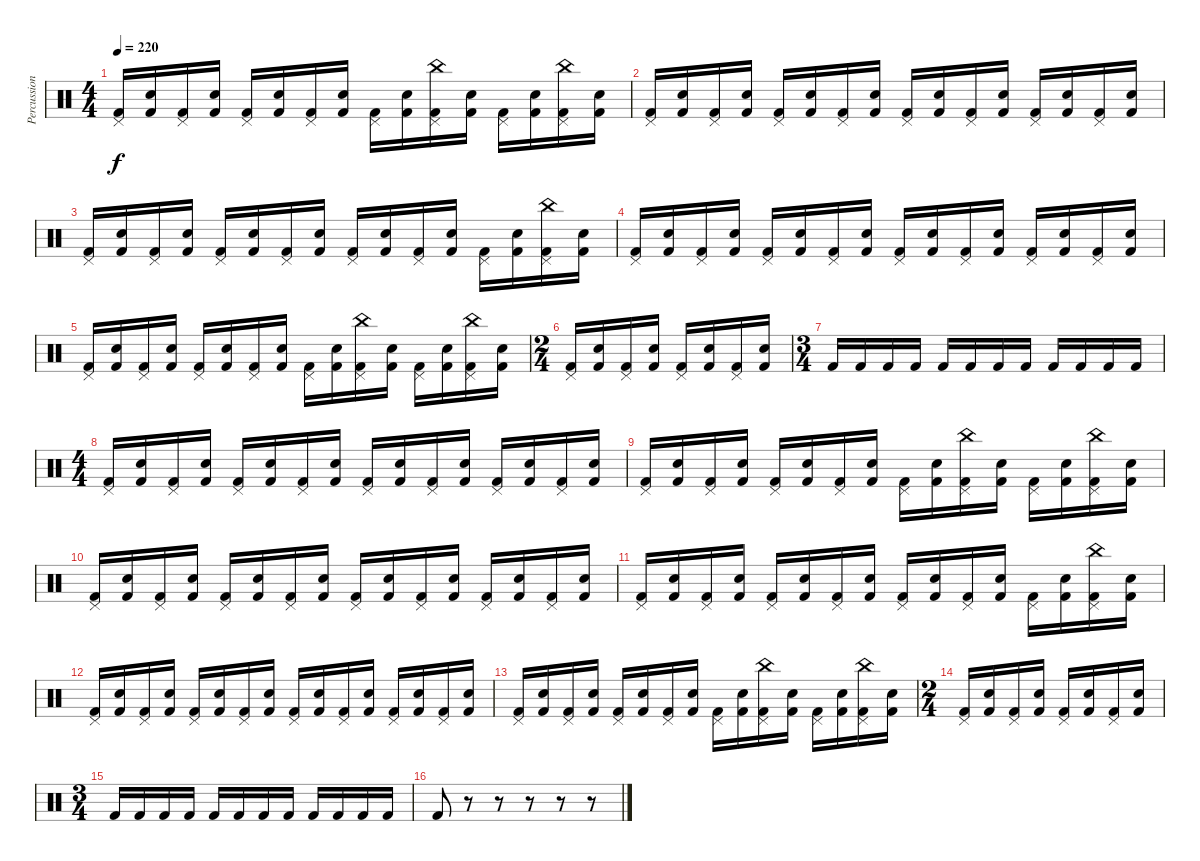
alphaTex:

\track ("Percussions" "Percussion") {instrument percussion}
\staff {score}
\articulation defaults
\ts (4 4)
\tempo 220
\clef neutral
\ks c
("Pedal Hi-Hat (hit)" "Kick (hit) 2").16{dy f} ("Snare (hit) 2" "Kick (hit) 2").16 ("Pedal Hi-Hat (hit)" "Kick (hit) 2").16 ("Snare (hit) 2" "Kick (hit) 2").16 ("Pedal Hi-Hat (hit)" "Kick (hit) 2").16 ("Snare (hit) 2" "Kick (hit) 2").16 ("Pedal Hi-Hat (hit)" "Kick (hit) 2").16 ("Snare (hit) 2" "Kick (hit) 2").16 ("Pedal Hi-Hat (hit)" "Kick (hit) 2").16 ("Snare (hit) 2" "Kick (hit) 2").16 ("China (hit)" "Pedal Hi-Hat (hit)" "Kick (hit) 2").16 ("Snare (hit) 2" "Kick (hit) 2").16 ("Pedal Hi-Hat (hit)" "Kick (hit) 2").16 ("Snare (hit) 2" "Kick (hit) 2").16 ("China (hit)" "Pedal Hi-Hat (hit)" "Kick (hit) 2").16 ("Snare (hit) 2" "Kick (hit) 2").16 |
("Pedal Hi-Hat (hit)" "Kick (hit) 2").16 ("Snare (hit) 2" "Kick (hit) 2").16 ("Pedal Hi-Hat (hit)" "Kick (hit) 2").16 ("Snare (hit) 2" "Kick (hit) 2").16 ("Pedal Hi-Hat (hit)" "Kick (hit) 2").16 ("Snare (hit) 2" "Kick (hit) 2").16 ("Pedal Hi-Hat (hit)" "Kick (hit) 2").16 ("Snare (hit) 2" "Kick (hit) 2").16 ("Pedal Hi-Hat (hit)" "Kick (hit) 2").16 ("Snare (hit) 2" "Kick (hit) 2").16 ("Pedal Hi-Hat (hit)" "Kick (hit) 2").16 ("Snare (hit) 2" "Kick (hit) 2").16 ("Pedal Hi-Hat (hit)" "Kick (hit) 2").16 ("Snare (hit) 2" "Kick (hit) 2").16 ("Pedal Hi-Hat (hit)" "Kick (hit) 2").16 ("Snare (hit) 2" "Kick (hit) 2").16 |
("Pedal Hi-Hat (hit)" "Kick (hit) 2").16 ("Snare (hit) 2" "Kick (hit) 2").16 ("Pedal Hi-Hat (hit)" "Kick (hit) 2").16 ("Snare (hit) 2" "Kick (hit) 2").16 ("Pedal Hi-Hat (hit)" "Kick (hit) 2").16 ("Snare (hit) 2" "Kick (hit) 2").16 ("Pedal Hi-Hat (hit)" "Kick (hit) 2").16 ("Snare (hit) 2" "Kick (hit) 2").16 ("Pedal Hi-Hat (hit)" "Kick (hit) 2").16 ("Snare (hit) 2" "Kick (hit) 2").16 ("Pedal Hi-Hat (hit)" "Kick (hit) 2").16 ("Snare (hit) 2" "Kick (hit) 2").16 ("Pedal Hi-Hat (hit)" "Kick (hit) 2").16 ("Snare (hit) 2" "Kick (hit) 2").16 ("China (hit)" "Pedal Hi-Hat (hit)" "Kick (hit) 2").16 ("Snare (hit) 2" "Kick (hit) 2").16 |
("Pedal Hi-Hat (hit)" "Kick (hit) 2").16 ("Snare (hit) 2" "Kick (hit) 2").16 ("Pedal Hi-Hat (hit)" "Kick (hit) 2").16 ("Snare (hit) 2" "Kick (hit) 2").16 ("Pedal Hi-Hat (hit)" "Kick (hit) 2").16 ("Snare (hit) 2" "Kick (hit) 2").16 ("Pedal Hi-Hat (hit)" "Kick (hit) 2").16 ("Snare (hit) 2" "Kick (hit) 2").16 ("Pedal Hi-Hat (hit)" "Kick (hit) 2").16 ("Snare (hit) 2" "Kick (hit) 2").16 ("Pedal Hi-Hat (hit)" "Kick (hit) 2").16 ("Snare (hit) 2" "Kick (hit) 2").16 ("Pedal Hi-Hat (hit)" "Kick (hit) 2").16 ("Snare (hit) 2" "Kick (hit) 2").16 ("Pedal Hi-Hat (hit)" "Kick (hit) 2").16 ("Snare (hit) 2" "Kick (hit) 2").16 |
("Pedal Hi-Hat (hit)" "Kick (hit) 2").16 ("Snare (hit) 2" "Kick (hit) 2").16 ("Pedal Hi-Hat (hit)" "Kick (hit) 2").16 ("Snare (hit) 2" "Kick (hit) 2").16 ("Pedal Hi-Hat (hit)" "Kick (hit) 2").16 ("Snare (hit) 2" "Kick (hit) 2").16 ("Pedal Hi-Hat (hit)" "Kick (hit) 2").16 ("Snare (hit) 2" "Kick (hit) 2").16 ("Pedal Hi-Hat (hit)" "Kick (hit) 2").16 ("Snare (hit) 2" "Kick (hit) 2").16 ("China (hit)" "Pedal Hi-Hat (hit)" "Kick (hit) 2").16 ("Snare (hit) 2" "Kick (hit) 2").16 ("Pedal Hi-Hat (hit)" "Kick (hit) 2").16 ("Snare (hit) 2" "Kick (hit) 2").16 ("China (hit)" "Pedal Hi-Hat (hit)" "Kick (hit) 2").16 ("Snare (hit) 2" "Kick (hit) 2").16 |
\ts (2 4)
("Pedal Hi-Hat (hit)" "Kick (hit) 2").16 ("Snare (hit) 2" "Kick (hit) 2").16 ("Pedal Hi-Hat (hit)" "Kick (hit) 2").16 ("Snare (hit) 2" "Kick (hit) 2").16 ("Pedal Hi-Hat (hit)" "Kick (hit) 2").16 ("Snare (hit) 2" "Kick (hit) 2").16 ("Pedal Hi-Hat (hit)" "Kick (hit) 2").16 ("Snare (hit) 2" "Kick (hit) 2").16 |
\ts (3 4)
"Kick (hit) 2".16 "Kick (hit) 2".16 "Kick (hit) 2".16 "Kick (hit) 2".16 "Kick (hit) 2".16 "Kick (hit) 2".16 "Kick (hit) 2".16 "Kick (hit) 2".16 "Kick (hit) 2".16 "Kick (hit) 2".16 "Kick (hit) 2".16 "Kick (hit) 2".16 |
\ts (4 4)
("Pedal Hi-Hat (hit)" "Kick (hit) 2").16 ("Snare (hit) 2" "Kick (hit) 2").16 ("Pedal Hi-Hat (hit)" "Kick (hit) 2").16 ("Snare (hit) 2" "Kick (hit) 2").16 ("Pedal Hi-Hat (hit)" "Kick (hit) 2").16 ("Snare (hit) 2" "Kick (hit) 2").16 ("Pedal Hi-Hat (hit)" "Kick (hit) 2").16 ("Snare (hit) 2" "Kick (hit) 2").16 ("Pedal Hi-Hat (hit)" "Kick (hit) 2").16 ("Snare (hit) 2" "Kick (hit) 2").16 ("Pedal Hi-Hat (hit)" "Kick (hit) 2").16 ("Snare (hit) 2" "Kick (hit) 2").16 ("Pedal Hi-Hat (hit)" "Kick (hit) 2").16 ("Snare (hit) 2" "Kick (hit) 2").16 ("Pedal Hi-Hat (hit)" "Kick (hit) 2").16 ("Snare (hit) 2" "Kick (hit) 2").16 |
("Pedal Hi-Hat (hit)" "Kick (hit) 2").16 ("Snare (hit) 2" "Kick (hit) 2").16 ("Pedal Hi-Hat (hit)" "Kick (hit) 2").16 ("Snare (hit) 2" "Kick (hit) 2").16 ("Pedal Hi-Hat (hit)" "Kick (hit) 2").16 ("Snare (hit) 2" "Kick (hit) 2").16 ("Pedal Hi-Hat (hit)" "Kick (hit) 2").16 ("Snare (hit) 2" "Kick (hit) 2").16 ("Pedal Hi-Hat (hit)" "Kick (hit) 2").16 ("Snare (hit) 2" "Kick (hit) 2").16 ("China (hit)" "Pedal Hi-Hat (hit)" "Kick (hit) 2").16 ("Snare (hit) 2" "Kick (hit) 2").16 ("Pedal Hi-Hat (hit)" "Kick (hit) 2").16 ("Snare (hit) 2" "Kick (hit) 2").16 ("China (hit)" "Pedal Hi-Hat (hit)" "Kick (hit) 2").16 ("Snare (hit) 2" "Kick (hit) 2").16 |
("Pedal Hi-Hat (hit)" "Kick (hit) 2").16 ("Snare (hit) 2" "Kick (hit) 2").16 ("Pedal Hi-Hat (hit)" "Kick (hit) 2").16 ("Snare (hit) 2" "Kick (hit) 2").16 ("Pedal Hi-Hat (hit)" "Kick (hit) 2").16 ("Snare (hit) 2" "Kick (hit) 2").16 ("Pedal Hi-Hat (hit)" "Kick (hit) 2").16 ("Snare (hit) 2" "Kick (hit) 2").16 ("Pedal Hi-Hat (hit)" "Kick (hit) 2").16 ("Snare (hit) 2" "Kick (hit) 2").16 ("Pedal Hi-Hat (hit)" "Kick (hit) 2").16 ("Snare (hit) 2" "Kick (hit) 2").16 ("Pedal Hi-Hat (hit)" "Kick (hit) 2").16 ("Snare (hit) 2" "Kick (hit) 2").16 ("Pedal Hi-Hat (hit)" "Kick (hit) 2").16 ("Snare (hit) 2" "Kick (hit) 2").16 |
("Pedal Hi-Hat (hit)" "Kick (hit) 2").16 ("Snare (hit) 2" "Kick (hit) 2").16 ("Pedal Hi-Hat (hit)" "Kick (hit) 2").16 ("Snare (hit) 2" "Kick (hit) 2").16 ("Pedal Hi-Hat (hit)" "Kick (hit) 2").16 ("Snare (hit) 2" "Kick (hit) 2").16 ("Pedal Hi-Hat (hit)" "Kick (hit) 2").16 ("Snare (hit) 2" "Kick (hit) 2").16 ("Pedal Hi-Hat (hit)" "Kick (hit) 2").16 ("Snare (hit) 2" "Kick (hit) 2").16 ("Pedal Hi-Hat (hit)" "Kick (hit) 2").16 ("Snare (hit) 2" "Kick (hit) 2").16 ("Pedal Hi-Hat (hit)" "Kick (hit) 2").16 ("Snare (hit) 2" "Kick (hit) 2").16 ("China (hit)" "Pedal Hi-Hat (hit)" "Kick (hit) 2").16 ("Snare (hit) 2" "Kick (hit) 2").16 |
("Pedal Hi-Hat (hit)" "Kick (hit) 2").16 ("Snare (hit) 2" "Kick (hit) 2").16 ("Pedal Hi-Hat (hit)" "Kick (hit) 2").16 ("Snare (hit) 2" "Kick (hit) 2").16 ("Pedal Hi-Hat (hit)" "Kick (hit) 2").16 ("Snare (hit) 2" "Kick (hit) 2").16 ("Pedal Hi-Hat (hit)" "Kick (hit) 2").16 ("Snare (hit) 2" "Kick (hit) 2").16 ("Pedal Hi-Hat (hit)" "Kick (hit) 2").16 ("Snare (hit) 2" "Kick (hit) 2").16 ("Pedal Hi-Hat (hit)" "Kick (hit) 2").16 ("Snare (hit) 2" "Kick (hit) 2").16 ("Pedal Hi-Hat (hit)" "Kick (hit) 2").16 ("Snare (hit) 2" "Kick (hit) 2").16 ("Pedal Hi-Hat (hit)" "Kick (hit) 2").16 ("Snare (hit) 2" "Kick (hit) 2").16 |
("Pedal Hi-Hat (hit)" "Kick (hit) 2").16 ("Snare (hit) 2" "Kick (hit) 2").16 ("Pedal Hi-Hat (hit)" "Kick (hit) 2").16 ("Snare (hit) 2" "Kick (hit) 2").16 ("Pedal Hi-Hat (hit)" "Kick (hit) 2").16 ("Snare (hit) 2" "Kick (hit) 2").16 ("Pedal Hi-Hat (hit)" "Kick (hit) 2").16 ("Snare (hit) 2" "Kick (hit) 2").16 ("Pedal Hi-Hat (hit)" "Kick (hit) 2").16 ("Snare (hit) 2" "Kick (hit) 2").16 ("China (hit)" "Pedal Hi-Hat (hit)" "Kick (hit) 2").16 ("Snare (hit) 2" "Kick (hit) 2").16 ("Pedal Hi-Hat (hit)" "Kick (hit) 2").16 ("Snare (hit) 2" "Kick (hit) 2").16 ("China (hit)" "Pedal Hi-Hat (hit)" "Kick (hit) 2").16 ("Snare (hit) 2" "Kick (hit) 2").16 |
\ts (2 4)
("Pedal Hi-Hat (hit)" "Kick (hit) 2").16 ("Snare (hit) 2" "Kick (hit) 2").16 ("Pedal Hi-Hat (hit)" "Kick (hit) 2").16 ("Snare (hit) 2" "Kick (hit) 2").16 ("Pedal Hi-Hat (hit)" "Kick (hit) 2").16 ("Snare (hit) 2" "Kick (hit) 2").16 ("Pedal Hi-Hat (hit)" "Kick (hit) 2").16 ("Snare (hit) 2" "Kick (hit) 2").16 |
\ts (3 4)
"Kick (hit) 2".16 "Kick (hit) 2".16 "Kick (hit) 2".16 "Kick (hit) 2".16 "Kick (hit) 2".16 "Kick (hit) 2".16 "Kick (hit) 2".16 "Kick (hit) 2".16 "Kick (hit) 2".16 "Kick (hit) 2".16 "Kick (hit) 2".16 "Kick (hit) 2".16 |
"Kick (hit) 2".8 r.8 r.8 r.8 r.8 r.8
